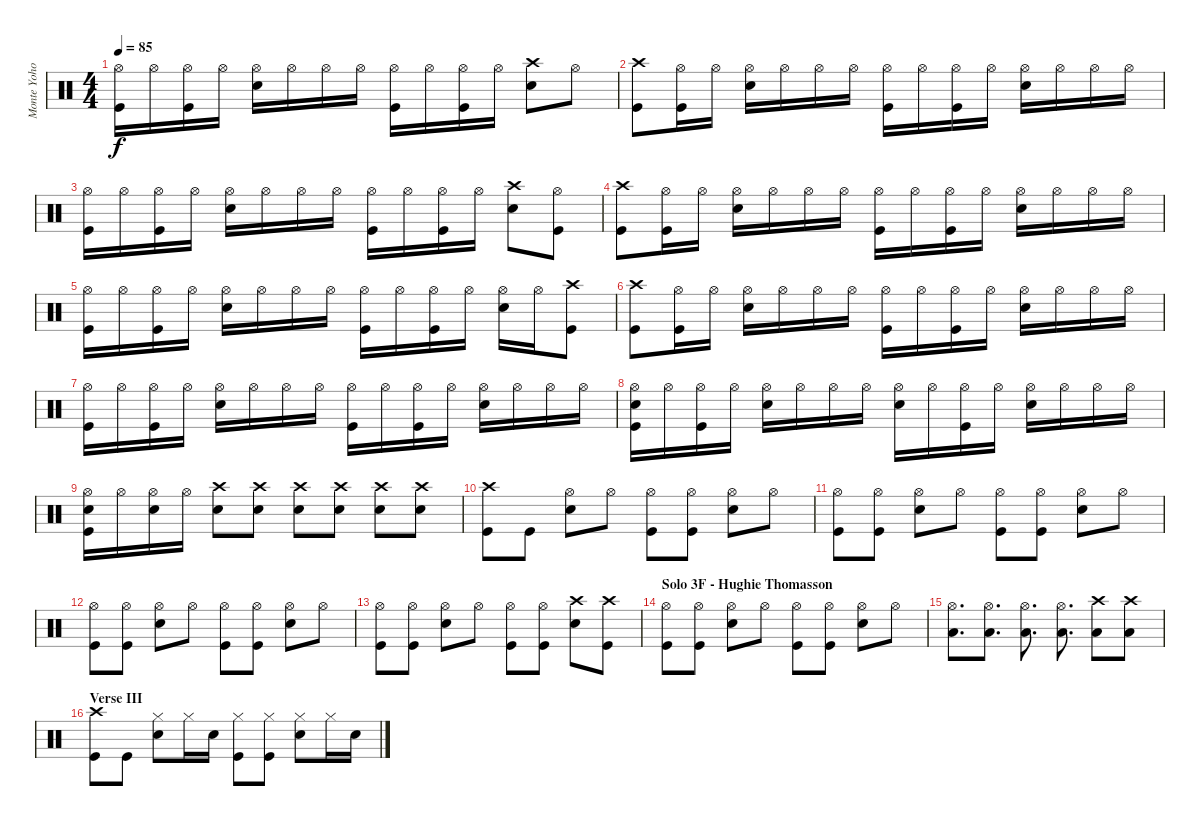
\track ("Monte Yoho - Drums" "Monte Yoho") {instrument percussion}
\staff {score}
\articulation defaults
\ts (4 4)
\tempo 85
\clef neutral
\ks c
("Hi-Hat (open)" "Kick (hit)").16{dy f} "Hi-Hat (open)".16 ("Hi-Hat (open)" "Kick (hit)").16 "Hi-Hat (open)".16 ("Hi-Hat (open)" "Snare (hit) 2").16 "Hi-Hat (open)".16 "Hi-Hat (open)".16 "Hi-Hat (open)".16 ("Hi-Hat (open)" "Kick (hit)").16 "Hi-Hat (open)".16 ("Hi-Hat (open)" "Kick (hit)").16 "Hi-Hat (open)".16 ("Crash high (hit)" "Snare (hit) 2").8 "Hi-Hat (open)".8 |
("Crash high (hit)" "Kick (hit)").8 ("Hi-Hat (open)" "Kick (hit)").16 "Hi-Hat (open)".16 ("Hi-Hat (open)" "Snare (hit) 2").16 "Hi-Hat (open)".16 "Hi-Hat (open)".16 "Hi-Hat (open)".16 ("Hi-Hat (open)" "Kick (hit)").16 "Hi-Hat (open)".16 ("Hi-Hat (open)" "Kick (hit)").16 "Hi-Hat (open)".16 ("Hi-Hat (open)" "Snare (hit) 2").16 "Hi-Hat (open)".16 "Hi-Hat (open)".16 "Hi-Hat (open)".16 |
("Hi-Hat (open)" "Kick (hit)").16 "Hi-Hat (open)".16 ("Hi-Hat (open)" "Kick (hit)").16 "Hi-Hat (open)".16 ("Hi-Hat (open)" "Snare (hit) 2").16 "Hi-Hat (open)".16 "Hi-Hat (open)".16 "Hi-Hat (open)".16 ("Hi-Hat (open)" "Kick (hit)").16 "Hi-Hat (open)".16 ("Hi-Hat (open)" "Kick (hit)").16 "Hi-Hat (open)".16 ("Crash high (hit)" "Snare (hit) 2").8 ("Hi-Hat (open)" "Kick (hit)").8 |
("Crash high (hit)" "Kick (hit)").8 ("Hi-Hat (open)" "Kick (hit)").16 "Hi-Hat (open)".16 ("Hi-Hat (open)" "Snare (hit) 2").16 "Hi-Hat (open)".16 "Hi-Hat (open)".16 "Hi-Hat (open)".16 ("Hi-Hat (open)" "Kick (hit)").16 "Hi-Hat (open)".16 ("Hi-Hat (open)" "Kick (hit)").16 "Hi-Hat (open)".16 ("Hi-Hat (open)" "Snare (hit) 2").16 "Hi-Hat (open)".16 "Hi-Hat (open)".16 "Hi-Hat (open)".16 |
("Hi-Hat (open)" "Kick (hit)").16 "Hi-Hat (open)".16 ("Hi-Hat (open)" "Kick (hit)").16 "Hi-Hat (open)".16 ("Hi-Hat (open)" "Snare (hit) 2").16 "Hi-Hat (open)".16 "Hi-Hat (open)".16 "Hi-Hat (open)".16 ("Hi-Hat (open)" "Kick (hit)").16 "Hi-Hat (open)".16 ("Hi-Hat (open)" "Kick (hit)").16 "Hi-Hat (open)".16 ("Hi-Hat (open)" "Snare (hit) 2").16 "Hi-Hat (open)".16 ("Crash high (hit)" "Kick (hit)").8 |
("Crash high (hit)" "Kick (hit)").8 ("Hi-Hat (open)" "Kick (hit)").16 "Hi-Hat (open)".16 ("Hi-Hat (open)" "Snare (hit) 2").16 "Hi-Hat (open)".16 "Hi-Hat (open)".16 "Hi-Hat (open)".16 ("Hi-Hat (open)" "Kick (hit)").16 "Hi-Hat (open)".16 ("Hi-Hat (open)" "Kick (hit)").16 "Hi-Hat (open)".16 ("Hi-Hat (open)" "Snare (hit) 2").16 "Hi-Hat (open)".16 "Hi-Hat (open)".16 "Hi-Hat (open)".16 |
("Hi-Hat (open)" "Kick (hit)").16 "Hi-Hat (open)".16 ("Hi-Hat (open)" "Kick (hit)").16 "Hi-Hat (open)".16 ("Hi-Hat (open)" "Snare (hit) 2").16 "Hi-Hat (open)".16 "Hi-Hat (open)".16 "Hi-Hat (open)".16 ("Hi-Hat (open)" "Kick (hit)").16 "Hi-Hat (open)".16 ("Hi-Hat (open)" "Kick (hit)").16 "Hi-Hat (open)".16 ("Hi-Hat (open)" "Snare (hit) 2").16 "Hi-Hat (open)".16 "Hi-Hat (open)".16 "Hi-Hat (open)".16 |
("Hi-Hat (open)" "Snare (hit) 2" "Kick (hit)").16 "Hi-Hat (open)".16 ("Hi-Hat (open)" "Kick (hit)").16 "Hi-Hat (open)".16 ("Hi-Hat (open)" "Snare (hit) 2").16 "Hi-Hat (open)".16 "Hi-Hat (open)".16 "Hi-Hat (open)".16 ("Hi-Hat (open)" "Snare (hit) 2").16 "Hi-Hat (open)".16 ("Hi-Hat (open)" "Kick (hit)").16 "Hi-Hat (open)".16 ("Hi-Hat (open)" "Snare (hit) 2").16 "Hi-Hat (open)".16 "Hi-Hat (open)".16 "Hi-Hat (open)".16 |
("Hi-Hat (open)" "Snare (hit) 2" "Kick (hit)").16 "Hi-Hat (open)".16 ("Hi-Hat (open)" "Snare (hit) 2").16 "Hi-Hat (open)".16 ("Crash high (hit)" "Snare (hit) 2").8 ("Crash high (hit)" "Snare (hit) 2").8 ("Crash high (hit)" "Snare (hit) 2").8 ("Crash high (hit)" "Snare (hit) 2").8 ("Crash high (hit)" "Snare (hit) 2").8 ("Crash high (hit)" "Snare (hit) 2").8 |
("Crash high (hit)" "Kick (hit)").8 "Kick (hit)".8 ("Hi-Hat (open)" "Snare (hit) 2").8 "Hi-Hat (open)".8 ("Hi-Hat (open)" "Kick (hit)").8 ("Hi-Hat (open)" "Kick (hit)").8 ("Hi-Hat (open)" "Snare (hit) 2").8 "Hi-Hat (open)".8 |
("Hi-Hat (open)" "Kick (hit)").8 ("Hi-Hat (open)" "Kick (hit)").8 ("Hi-Hat (open)" "Snare (hit) 2").8 "Hi-Hat (open)".8 ("Hi-Hat (open)" "Kick (hit)").8 ("Hi-Hat (open)" "Kick (hit)").8 ("Hi-Hat (open)" "Snare (hit) 2").8 "Hi-Hat (open)".8 |
("Hi-Hat (open)" "Kick (hit)").8 ("Hi-Hat (open)" "Kick (hit)").8 ("Hi-Hat (open)" "Snare (hit) 2").8 "Hi-Hat (open)".8 ("Hi-Hat (open)" "Kick (hit)").8 ("Hi-Hat (open)" "Kick (hit)").8 ("Hi-Hat (open)" "Snare (hit) 2").8 "Hi-Hat (open)".8 |
("Hi-Hat (open)" "Kick (hit)").8 ("Hi-Hat (open)" "Kick (hit)").8 ("Hi-Hat (open)" "Snare (hit) 2").8 "Hi-Hat (open)".8 ("Hi-Hat (open)" "Kick (hit)").8 ("Hi-Hat (open)" "Kick (hit)").8 ("Crash high (hit)" "Snare (hit) 2").8 ("Crash high (hit)" "Kick (hit)").8 |
\section ("" "Solo 3F - Hughie Thomasson")
("Hi-Hat (open)" "Kick (hit)").8 ("Hi-Hat (open)" "Kick (hit)").8 ("Hi-Hat (open)" "Snare (hit) 2").8 "Hi-Hat (open)".8 ("Hi-Hat (open)" "Kick (hit)").8 ("Hi-Hat (open)" "Kick (hit)").8 ("Hi-Hat (open)" "Snare (hit) 2").8 "Hi-Hat (open)".8 |
("Hi-Hat (open)" "Low Tom (hit)").8{d} ("Hi-Hat (open)" "Low Tom (hit)").8{d} ("Hi-Hat (open)" "Low Tom (hit)").8{d} ("Hi-Hat (open)" "Low Tom (hit)").8{d} ("Crash high (hit)" "Low Tom (hit)").8 ("Crash high (hit)" "Low Tom (hit)").8 |
\section ("" "Verse III")
("Crash high (hit)" "Kick (hit)").8 "Kick (hit)".8 ("Hi-Hat (closed)" "Snare (hit) 2").8 "Hi-Hat (closed)".16 "Snare (hit) 2".16 ("Hi-Hat (closed)" "Kick (hit)").8 ("Hi-Hat (closed)" "Kick (hit)").8 ("Hi-Hat (closed)" "Snare (hit) 2").8 "Hi-Hat (closed)".16 "Snare (hit) 2".16
